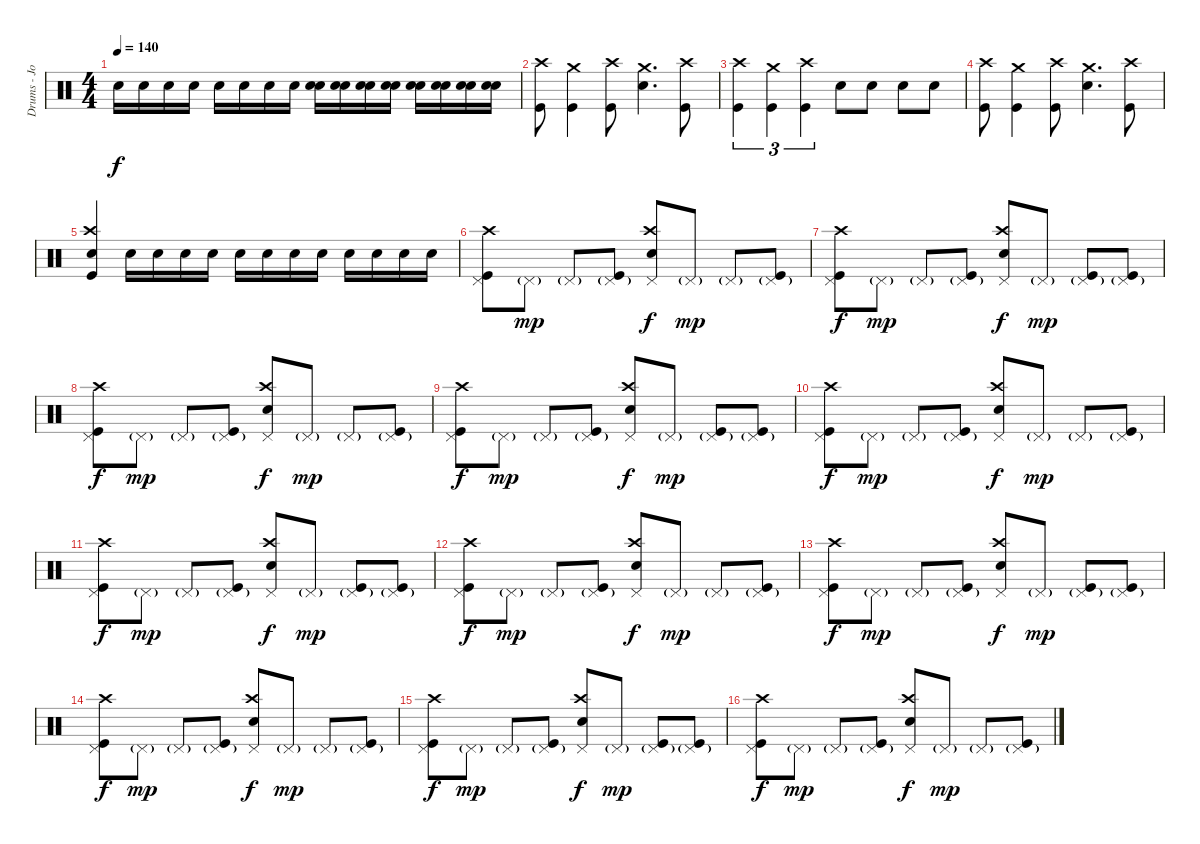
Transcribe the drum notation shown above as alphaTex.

\track ("Drums - Josh Klinghoffer" "Drums - Jo") {instrument percussion}
\staff {score}
\articulation defaults
\ts (4 4)
\tempo 140
\clef neutral
\ks c "Snare (hit) 2".16{dy f} "Snare (hit) 2".16 "Snare (hit) 2".16 "Snare (hit) 2".16 "Snare (hit) 2".16 "Snare (hit) 2".16 "Snare (hit) 2".16 "Snare (hit) 2".16
("Snare (hit) 2" "Electric Snare (hit)").16 ("Snare (hit) 2" "Electric Snare (hit)").16 ("Snare (hit) 2" "Electric Snare (hit)").16 ("Snare (hit) 2" "Electric Snare (hit)").16 ("Snare (hit) 2" "Electric Snare (hit)").16 ("Snare (hit) 2" "Electric Snare (hit)").16 ("Snare (hit) 2" "Electric Snare (hit)").16 ("Snare (hit) 2" "Electric Snare (hit)").16 |
("Crash high (hit)" "Kick (hit)").8 ("Crash medium (hit)" "Kick (hit)").4 ("Crash high (hit)" "Kick (hit)").8 ("Crash medium (hit)" "Electric Snare (hit)").4{d} ("Crash high (hit)" "Kick (hit)").8 |
("Crash high (hit)" "Kick (hit)").4{tu (3 2)} ("Crash medium (hit)" "Kick (hit)").4{tu (3 2)} ("Crash high (hit)" "Kick (hit)").4{tu (3 2)} "Electric Snare (hit)".8 "Electric Snare (hit)".8 "Electric Snare (hit)".8 "Electric Snare (hit)".8 |
("Crash high (hit)" "Kick (hit)").8 ("Crash medium (hit)" "Kick (hit)").4 ("Crash high (hit)" "Kick (hit)").8 ("Crash medium (hit)" "Electric Snare (hit)").4{d} ("Crash high (hit)" "Kick (hit)").8 |
("Crash high (hit)" "Electric Snare (hit)" "Kick (hit)").4 "Snare (hit) 2".16 "Snare (hit) 2".16 "Snare (hit) 2".16 "Snare (hit) 2".16 "Snare (hit) 2".16 "Snare (hit) 2".16 "Snare (hit) 2".16 "Snare (hit) 2".16 "Snare (hit) 2".16 "Snare (hit) 2".16 "Snare (hit) 2".16 "Snare (hit) 2".16 |
("Crash high (hit)" "Pedal Hi-Hat (hit)" "Kick (hit)").8 "Pedal Hi-Hat (hit)"{g}.8{dy mp} "Pedal Hi-Hat (hit)"{g}.8 ("Pedal Hi-Hat (hit)"{g} "Kick (hit)").8 ("Crash high (hit)" "Pedal Hi-Hat (hit)" "Electric Snare (hit)").8{dy f} "Pedal Hi-Hat (hit)"{g}.8{dy mp} "Pedal Hi-Hat (hit)"{g}.8 ("Pedal Hi-Hat (hit)"{g} "Kick (hit)").8 |
("Crash high (hit)" "Pedal Hi-Hat (hit)" "Kick (hit)").8{dy f} "Pedal Hi-Hat (hit)"{g}.8{dy mp} "Pedal Hi-Hat (hit)"{g}.8 ("Pedal Hi-Hat (hit)"{g} "Kick (hit)").8 ("Crash high (hit)" "Pedal Hi-Hat (hit)" "Electric Snare (hit)").8{dy f} "Pedal Hi-Hat (hit)"{g}.8{dy mp} ("Pedal Hi-Hat (hit)"{g} "Kick (hit)").8 ("Pedal Hi-Hat (hit)"{g} "Kick (hit)").8 |
("Crash high (hit)" "Pedal Hi-Hat (hit)" "Kick (hit)").8{dy f} "Pedal Hi-Hat (hit)"{g}.8{dy mp} "Pedal Hi-Hat (hit)"{g}.8 ("Pedal Hi-Hat (hit)"{g} "Kick (hit)").8 ("Crash high (hit)" "Pedal Hi-Hat (hit)" "Electric Snare (hit)").8{dy f} "Pedal Hi-Hat (hit)"{g}.8{dy mp} "Pedal Hi-Hat (hit)"{g}.8 ("Pedal Hi-Hat (hit)"{g} "Kick (hit)").8 |
("Crash high (hit)" "Pedal Hi-Hat (hit)" "Kick (hit)").8{dy f} "Pedal Hi-Hat (hit)"{g}.8{dy mp} "Pedal Hi-Hat (hit)"{g}.8 ("Pedal Hi-Hat (hit)"{g} "Kick (hit)").8 ("Crash high (hit)" "Pedal Hi-Hat (hit)" "Electric Snare (hit)").8{dy f} "Pedal Hi-Hat (hit)"{g}.8{dy mp} ("Pedal Hi-Hat (hit)"{g} "Kick (hit)").8 ("Pedal Hi-Hat (hit)"{g} "Kick (hit)").8 |
("Crash high (hit)" "Pedal Hi-Hat (hit)" "Kick (hit)").8{dy f} "Pedal Hi-Hat (hit)"{g}.8{dy mp} "Pedal Hi-Hat (hit)"{g}.8 ("Pedal Hi-Hat (hit)"{g} "Kick (hit)").8 ("Crash high (hit)" "Pedal Hi-Hat (hit)" "Electric Snare (hit)").8{dy f} "Pedal Hi-Hat (hit)"{g}.8{dy mp} "Pedal Hi-Hat (hit)"{g}.8 ("Pedal Hi-Hat (hit)"{g} "Kick (hit)").8 |
("Crash high (hit)" "Pedal Hi-Hat (hit)" "Kick (hit)").8{dy f} "Pedal Hi-Hat (hit)"{g}.8{dy mp} "Pedal Hi-Hat (hit)"{g}.8 ("Pedal Hi-Hat (hit)"{g} "Kick (hit)").8 ("Crash high (hit)" "Pedal Hi-Hat (hit)" "Electric Snare (hit)").8{dy f} "Pedal Hi-Hat (hit)"{g}.8{dy mp} ("Pedal Hi-Hat (hit)"{g} "Kick (hit)").8 ("Pedal Hi-Hat (hit)"{g} "Kick (hit)").8 |
("Crash high (hit)" "Pedal Hi-Hat (hit)" "Kick (hit)").8{dy f} "Pedal Hi-Hat (hit)"{g}.8{dy mp} "Pedal Hi-Hat (hit)"{g}.8 ("Pedal Hi-Hat (hit)"{g} "Kick (hit)").8 ("Crash high (hit)" "Pedal Hi-Hat (hit)" "Electric Snare (hit)").8{dy f} "Pedal Hi-Hat (hit)"{g}.8{dy mp} "Pedal Hi-Hat (hit)"{g}.8 ("Pedal Hi-Hat (hit)"{g} "Kick (hit)").8 |
("Crash high (hit)" "Pedal Hi-Hat (hit)" "Kick (hit)").8{dy f} "Pedal Hi-Hat (hit)"{g}.8{dy mp} "Pedal Hi-Hat (hit)"{g}.8 ("Pedal Hi-Hat (hit)"{g} "Kick (hit)").8 ("Crash high (hit)" "Pedal Hi-Hat (hit)" "Electric Snare (hit)").8{dy f} "Pedal Hi-Hat (hit)"{g}.8{dy mp} ("Pedal Hi-Hat (hit)"{g} "Kick (hit)").8 ("Pedal Hi-Hat (hit)"{g} "Kick (hit)").8 |
("Crash high (hit)" "Pedal Hi-Hat (hit)" "Kick (hit)").8{dy f} "Pedal Hi-Hat (hit)"{g}.8{dy mp} "Pedal Hi-Hat (hit)"{g}.8 ("Pedal Hi-Hat (hit)"{g} "Kick (hit)").8 ("Crash high (hit)" "Pedal Hi-Hat (hit)" "Electric Snare (hit)").8{dy f} "Pedal Hi-Hat (hit)"{g}.8{dy mp} "Pedal Hi-Hat (hit)"{g}.8 ("Pedal Hi-Hat (hit)"{g} "Kick (hit)").8 |
("Crash high (hit)" "Pedal Hi-Hat (hit)" "Kick (hit)").8{dy f} "Pedal Hi-Hat (hit)"{g}.8{dy mp} "Pedal Hi-Hat (hit)"{g}.8 ("Pedal Hi-Hat (hit)"{g} "Kick (hit)").8 ("Crash high (hit)" "Pedal Hi-Hat (hit)" "Electric Snare (hit)").8{dy f} "Pedal Hi-Hat (hit)"{g}.8{dy mp} ("Pedal Hi-Hat (hit)"{g} "Kick (hit)").8 ("Pedal Hi-Hat (hit)"{g} "Kick (hit)").8 |
("Crash high (hit)" "Pedal Hi-Hat (hit)" "Kick (hit)").8{dy f} "Pedal Hi-Hat (hit)"{g}.8{dy mp} "Pedal Hi-Hat (hit)"{g}.8 ("Pedal Hi-Hat (hit)"{g} "Kick (hit)").8 ("Crash high (hit)" "Pedal Hi-Hat (hit)" "Electric Snare (hit)").8{dy f} "Pedal Hi-Hat (hit)"{g}.8{dy mp} "Pedal Hi-Hat (hit)"{g}.8 ("Pedal Hi-Hat (hit)"{g} "Kick (hit)").8
